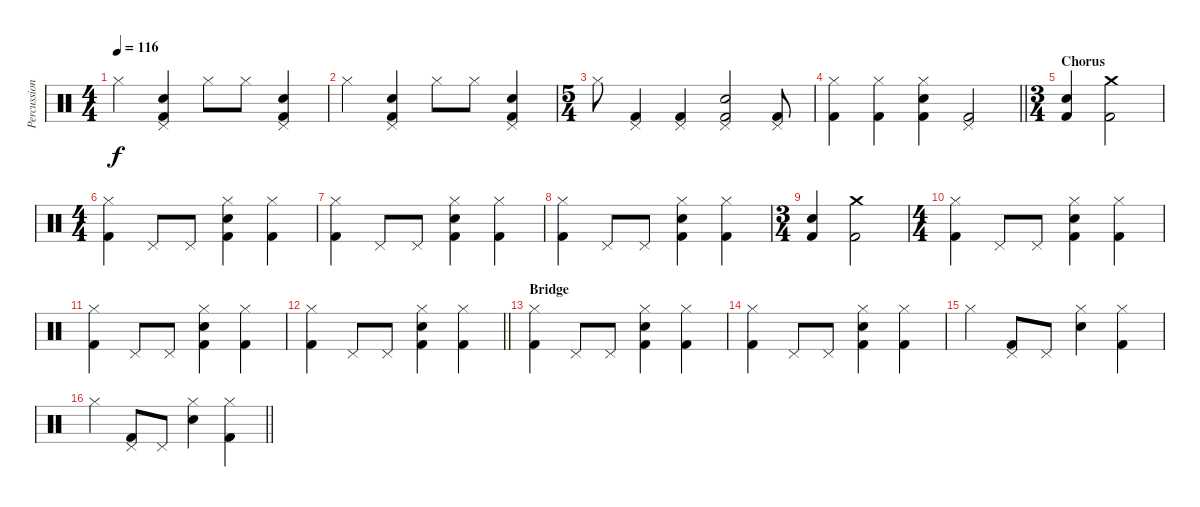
\track ("Percussion" "Percussion") {instrument percussion}
\staff {score}
\articulation defaults
\ts (4 4)
\tempo 116
\clef neutral
\ks c "Hi-Hat (closed)".4{dy f}
("Pedal Hi-Hat (hit)" "Electric Snare (hit)" "Kick (hit) 2").4 "Hi-Hat (closed)".8 "Hi-Hat (closed)".8 ("Pedal Hi-Hat (hit)" "Electric Snare (hit)" "Kick (hit) 2").4 |
"Hi-Hat (closed)".4 ("Pedal Hi-Hat (hit)" "Electric Snare (hit)" "Kick (hit) 2").4 "Hi-Hat (closed)".8 "Hi-Hat (closed)".8 ("Pedal Hi-Hat (hit)" "Electric Snare (hit)" "Kick (hit) 2").4 |
\ts (5 4)
"Hi-Hat (closed)".8 ("Pedal Hi-Hat (hit)" "Kick (hit) 2").4 ("Pedal Hi-Hat (hit)" "Kick (hit) 2").4 ("Pedal Hi-Hat (hit)" "Electric Snare (hit)" "Kick (hit) 2").2 ("Pedal Hi-Hat (hit)" "Kick (hit) 2").8 |
\barLineRight lightlight
("Hi-Hat (closed)" "Kick (hit) 2").4 ("Hi-Hat (closed)" "Kick (hit) 2").4 ("Hi-Hat (closed)" "Electric Snare (hit)" "Kick (hit) 2").4 ("Pedal Hi-Hat (hit)" "Kick (hit) 2").2 |
\ts (3 4)
\section ("" "Chorus")
("Electric Snare (hit)" "Kick (hit) 2").4 ("Crash medium (hit)" "Kick (hit) 2").2 |
\ts (4 4)
("Hi-Hat (closed)" "Kick (hit) 2").4 "Pedal Hi-Hat (hit)".8 "Pedal Hi-Hat (hit)".8 ("Hi-Hat (closed)" "Electric Snare (hit)" "Kick (hit) 2").4 ("Hi-Hat (closed)" "Kick (hit) 2").4 |
("Hi-Hat (closed)" "Kick (hit) 2").4 "Pedal Hi-Hat (hit)".8 "Pedal Hi-Hat (hit)".8 ("Hi-Hat (closed)" "Electric Snare (hit)" "Kick (hit) 2").4 ("Hi-Hat (closed)" "Kick (hit) 2").4 |
("Hi-Hat (closed)" "Kick (hit) 2").4 "Pedal Hi-Hat (hit)".8 "Pedal Hi-Hat (hit)".8 ("Hi-Hat (closed)" "Electric Snare (hit)" "Kick (hit) 2").4 ("Hi-Hat (closed)" "Kick (hit) 2").4 |
\ts (3 4)
("Electric Snare (hit)" "Kick (hit) 2").4 ("Crash medium (hit)" "Kick (hit) 2").2 |
\ts (4 4)
("Hi-Hat (closed)" "Kick (hit) 2").4 "Pedal Hi-Hat (hit)".8 "Pedal Hi-Hat (hit)".8 ("Hi-Hat (closed)" "Electric Snare (hit)" "Kick (hit) 2").4 ("Hi-Hat (closed)" "Kick (hit) 2").4 |
("Hi-Hat (closed)" "Kick (hit) 2").4 "Pedal Hi-Hat (hit)".8 "Pedal Hi-Hat (hit)".8 ("Hi-Hat (closed)" "Electric Snare (hit)" "Kick (hit) 2").4 ("Hi-Hat (closed)" "Kick (hit) 2").4 |
\barLineRight lightlight
("Hi-Hat (closed)" "Kick (hit) 2").4 "Pedal Hi-Hat (hit)".8 "Pedal Hi-Hat (hit)".8 ("Hi-Hat (closed)" "Electric Snare (hit)" "Kick (hit) 2").4 ("Hi-Hat (closed)" "Kick (hit) 2").4 |
\section ("" "Bridge")
("Hi-Hat (closed)" "Kick (hit) 2").4 "Pedal Hi-Hat (hit)".8 "Pedal Hi-Hat (hit)".8 ("Hi-Hat (closed)" "Electric Snare (hit)" "Kick (hit) 2").4 ("Hi-Hat (closed)" "Kick (hit) 2").4 |
("Hi-Hat (closed)" "Kick (hit) 2").4 "Pedal Hi-Hat (hit)".8 "Pedal Hi-Hat (hit)".8 ("Hi-Hat (closed)" "Electric Snare (hit)" "Kick (hit) 2").4 ("Hi-Hat (closed)" "Kick (hit) 2").4 |
"Hi-Hat (closed)".4 ("Pedal Hi-Hat (hit)" "Kick (hit) 2").8 "Pedal Hi-Hat (hit)".8 ("Hi-Hat (closed)" "Electric Snare (hit)").4 ("Hi-Hat (closed)" "Kick (hit) 2").4 |
\barLineRight lightlight "Hi-Hat (closed)".4
("Pedal Hi-Hat (hit)" "Kick (hit) 2").8 "Pedal Hi-Hat (hit)".8 ("Hi-Hat (closed)" "Electric Snare (hit)").4 ("Hi-Hat (closed)" "Kick (hit) 2").4
